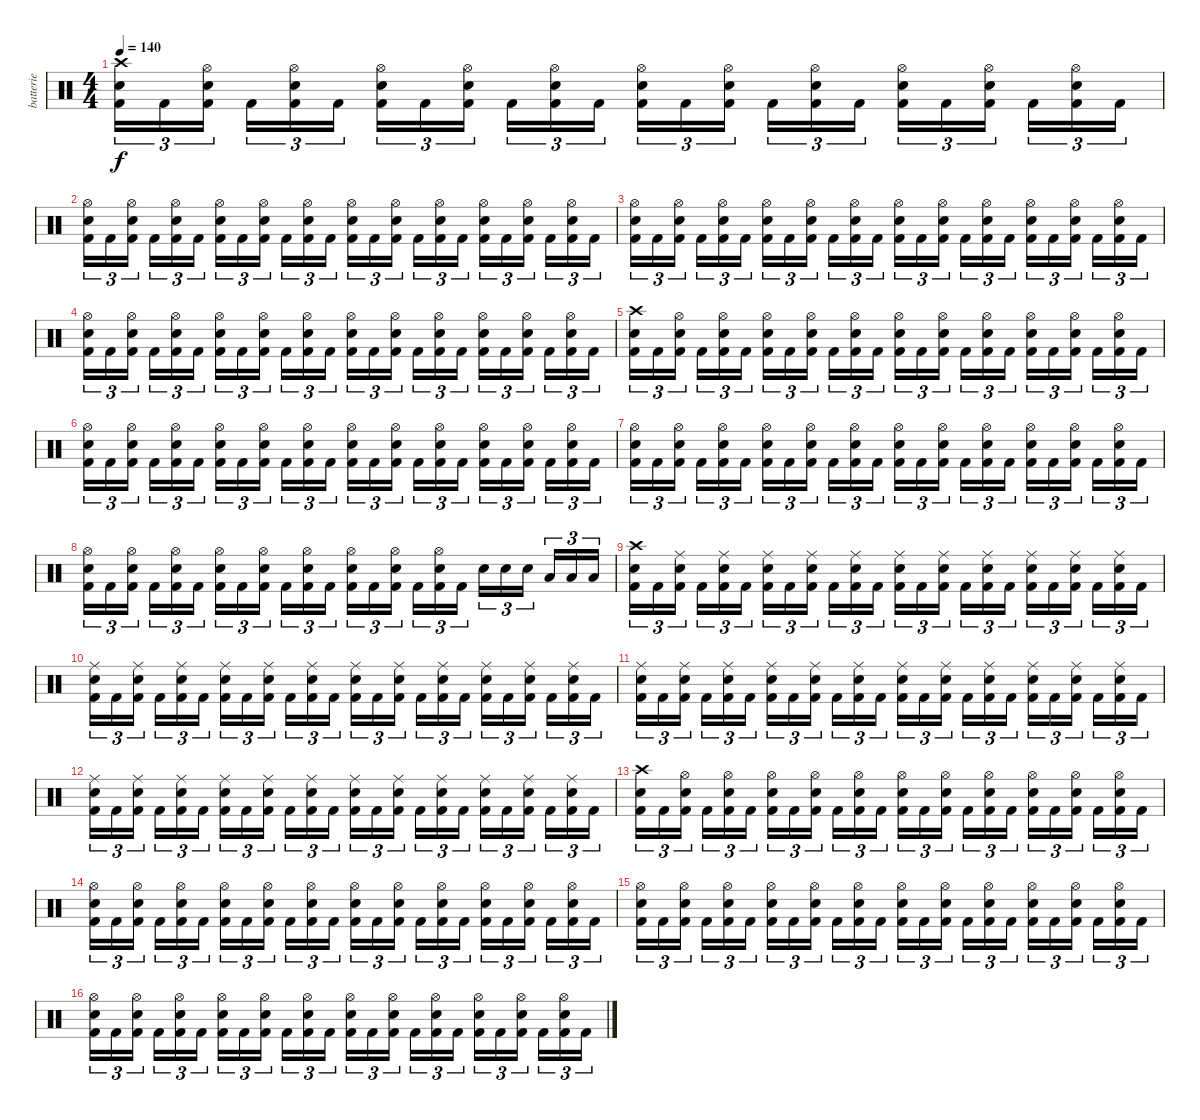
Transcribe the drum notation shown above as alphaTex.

\track ("batterie" "batterie") {instrument percussion}
\staff {score}
\articulation defaults
\ts (4 4)
\tempo 140
\clef neutral
\ks c
("Crash high (hit)" "Electric Snare (hit)" "Kick (hit) 2").16{tu (3 2) dy f} "Kick (hit) 2".16{tu (3 2)} ("Hi-Hat (open)" "Electric Snare (hit)" "Kick (hit) 2").16{tu (3 2)} "Kick (hit) 2".16{tu (3 2)} ("Hi-Hat (open)" "Electric Snare (hit)" "Kick (hit) 2").16{tu (3 2)} "Kick (hit) 2".16{tu (3 2)} ("Hi-Hat (open)" "Electric Snare (hit)" "Kick (hit) 2").16{tu (3 2)} "Kick (hit) 2".16{tu (3 2)} ("Hi-Hat (open)" "Electric Snare (hit)" "Kick (hit) 2").16{tu (3 2)} "Kick (hit) 2".16{tu (3 2)} ("Hi-Hat (open)" "Electric Snare (hit)" "Kick (hit) 2").16{tu (3 2)} "Kick (hit) 2".16{tu (3 2)} ("Hi-Hat (open)" "Electric Snare (hit)" "Kick (hit) 2").16{tu (3 2)} "Kick (hit) 2".16{tu (3 2)} ("Hi-Hat (open)" "Electric Snare (hit)" "Kick (hit) 2").16{tu (3 2)} "Kick (hit) 2".16{tu (3 2)} ("Hi-Hat (open)" "Electric Snare (hit)" "Kick (hit) 2").16{tu (3 2)} "Kick (hit) 2".16{tu (3 2)} ("Hi-Hat (open)" "Electric Snare (hit)" "Kick (hit) 2").16{tu (3 2)} "Kick (hit) 2".16{tu (3 2)} ("Hi-Hat (open)" "Electric Snare (hit)" "Kick (hit) 2").16{tu (3 2)} "Kick (hit) 2".16{tu (3 2)} ("Hi-Hat (open)" "Electric Snare (hit)" "Kick (hit) 2").16{tu (3 2)} "Kick (hit) 2".16{tu (3 2)} |
("Hi-Hat (open)" "Electric Snare (hit)" "Kick (hit) 2").16{tu (3 2)} "Kick (hit) 2".16{tu (3 2)} ("Hi-Hat (open)" "Electric Snare (hit)" "Kick (hit) 2").16{tu (3 2)} "Kick (hit) 2".16{tu (3 2)} ("Hi-Hat (open)" "Electric Snare (hit)" "Kick (hit) 2").16{tu (3 2)} "Kick (hit) 2".16{tu (3 2)} ("Hi-Hat (open)" "Electric Snare (hit)" "Kick (hit) 2").16{tu (3 2)} "Kick (hit) 2".16{tu (3 2)} ("Hi-Hat (open)" "Electric Snare (hit)" "Kick (hit) 2").16{tu (3 2)} "Kick (hit) 2".16{tu (3 2)} ("Hi-Hat (open)" "Electric Snare (hit)" "Kick (hit) 2").16{tu (3 2)} "Kick (hit) 2".16{tu (3 2)} ("Hi-Hat (open)" "Electric Snare (hit)" "Kick (hit) 2").16{tu (3 2)} "Kick (hit) 2".16{tu (3 2)} ("Hi-Hat (open)" "Electric Snare (hit)" "Kick (hit) 2").16{tu (3 2)} "Kick (hit) 2".16{tu (3 2)} ("Hi-Hat (open)" "Electric Snare (hit)" "Kick (hit) 2").16{tu (3 2)} "Kick (hit) 2".16{tu (3 2)} ("Hi-Hat (open)" "Electric Snare (hit)" "Kick (hit) 2").16{tu (3 2)} "Kick (hit) 2".16{tu (3 2)} ("Hi-Hat (open)" "Electric Snare (hit)" "Kick (hit) 2").16{tu (3 2)} "Kick (hit) 2".16{tu (3 2)} ("Hi-Hat (open)" "Electric Snare (hit)" "Kick (hit) 2").16{tu (3 2)} "Kick (hit) 2".16{tu (3 2)} |
("Hi-Hat (open)" "Electric Snare (hit)" "Kick (hit) 2").16{tu (3 2)} "Kick (hit) 2".16{tu (3 2)} ("Hi-Hat (open)" "Electric Snare (hit)" "Kick (hit) 2").16{tu (3 2)} "Kick (hit) 2".16{tu (3 2)} ("Hi-Hat (open)" "Electric Snare (hit)" "Kick (hit) 2").16{tu (3 2)} "Kick (hit) 2".16{tu (3 2)} ("Hi-Hat (open)" "Electric Snare (hit)" "Kick (hit) 2").16{tu (3 2)} "Kick (hit) 2".16{tu (3 2)} ("Hi-Hat (open)" "Electric Snare (hit)" "Kick (hit) 2").16{tu (3 2)} "Kick (hit) 2".16{tu (3 2)} ("Hi-Hat (open)" "Electric Snare (hit)" "Kick (hit) 2").16{tu (3 2)} "Kick (hit) 2".16{tu (3 2)} ("Hi-Hat (open)" "Electric Snare (hit)" "Kick (hit) 2").16{tu (3 2)} "Kick (hit) 2".16{tu (3 2)} ("Hi-Hat (open)" "Electric Snare (hit)" "Kick (hit) 2").16{tu (3 2)} "Kick (hit) 2".16{tu (3 2)} ("Hi-Hat (open)" "Electric Snare (hit)" "Kick (hit) 2").16{tu (3 2)} "Kick (hit) 2".16{tu (3 2)} ("Hi-Hat (open)" "Electric Snare (hit)" "Kick (hit) 2").16{tu (3 2)} "Kick (hit) 2".16{tu (3 2)} ("Hi-Hat (open)" "Electric Snare (hit)" "Kick (hit) 2").16{tu (3 2)} "Kick (hit) 2".16{tu (3 2)} ("Hi-Hat (open)" "Electric Snare (hit)" "Kick (hit) 2").16{tu (3 2)} "Kick (hit) 2".16{tu (3 2)} |
("Hi-Hat (open)" "Electric Snare (hit)" "Kick (hit) 2").16{tu (3 2)} "Kick (hit) 2".16{tu (3 2)} ("Hi-Hat (open)" "Electric Snare (hit)" "Kick (hit) 2").16{tu (3 2)} "Kick (hit) 2".16{tu (3 2)} ("Hi-Hat (open)" "Electric Snare (hit)" "Kick (hit) 2").16{tu (3 2)} "Kick (hit) 2".16{tu (3 2)} ("Hi-Hat (open)" "Electric Snare (hit)" "Kick (hit) 2").16{tu (3 2)} "Kick (hit) 2".16{tu (3 2)} ("Hi-Hat (open)" "Electric Snare (hit)" "Kick (hit) 2").16{tu (3 2)} "Kick (hit) 2".16{tu (3 2)} ("Hi-Hat (open)" "Electric Snare (hit)" "Kick (hit) 2").16{tu (3 2)} "Kick (hit) 2".16{tu (3 2)} ("Hi-Hat (open)" "Electric Snare (hit)" "Kick (hit) 2").16{tu (3 2)} "Kick (hit) 2".16{tu (3 2)} ("Hi-Hat (open)" "Electric Snare (hit)" "Kick (hit) 2").16{tu (3 2)} "Kick (hit) 2".16{tu (3 2)} ("Hi-Hat (open)" "Electric Snare (hit)" "Kick (hit) 2").16{tu (3 2)} "Kick (hit) 2".16{tu (3 2)} ("Hi-Hat (open)" "Electric Snare (hit)" "Kick (hit) 2").16{tu (3 2)} "Kick (hit) 2".16{tu (3 2)} ("Hi-Hat (open)" "Electric Snare (hit)" "Kick (hit) 2").16{tu (3 2)} "Kick (hit) 2".16{tu (3 2)} ("Hi-Hat (open)" "Electric Snare (hit)" "Kick (hit) 2").16{tu (3 2)} "Kick (hit) 2".16{tu (3 2)} |
("Crash high (hit)" "Electric Snare (hit)" "Kick (hit) 2").16{tu (3 2)} "Kick (hit) 2".16{tu (3 2)} ("Hi-Hat (open)" "Electric Snare (hit)" "Kick (hit) 2").16{tu (3 2)} "Kick (hit) 2".16{tu (3 2)} ("Hi-Hat (open)" "Electric Snare (hit)" "Kick (hit) 2").16{tu (3 2)} "Kick (hit) 2".16{tu (3 2)} ("Hi-Hat (open)" "Electric Snare (hit)" "Kick (hit) 2").16{tu (3 2)} "Kick (hit) 2".16{tu (3 2)} ("Hi-Hat (open)" "Electric Snare (hit)" "Kick (hit) 2").16{tu (3 2)} "Kick (hit) 2".16{tu (3 2)} ("Hi-Hat (open)" "Electric Snare (hit)" "Kick (hit) 2").16{tu (3 2)} "Kick (hit) 2".16{tu (3 2)} ("Hi-Hat (open)" "Electric Snare (hit)" "Kick (hit) 2").16{tu (3 2)} "Kick (hit) 2".16{tu (3 2)} ("Hi-Hat (open)" "Electric Snare (hit)" "Kick (hit) 2").16{tu (3 2)} "Kick (hit) 2".16{tu (3 2)} ("Hi-Hat (open)" "Electric Snare (hit)" "Kick (hit) 2").16{tu (3 2)} "Kick (hit) 2".16{tu (3 2)} ("Hi-Hat (open)" "Electric Snare (hit)" "Kick (hit) 2").16{tu (3 2)} "Kick (hit) 2".16{tu (3 2)} ("Hi-Hat (open)" "Electric Snare (hit)" "Kick (hit) 2").16{tu (3 2)} "Kick (hit) 2".16{tu (3 2)} ("Hi-Hat (open)" "Electric Snare (hit)" "Kick (hit) 2").16{tu (3 2)} "Kick (hit) 2".16{tu (3 2)} |
("Hi-Hat (open)" "Electric Snare (hit)" "Kick (hit) 2").16{tu (3 2)} "Kick (hit) 2".16{tu (3 2)} ("Hi-Hat (open)" "Electric Snare (hit)" "Kick (hit) 2").16{tu (3 2)} "Kick (hit) 2".16{tu (3 2)} ("Hi-Hat (open)" "Electric Snare (hit)" "Kick (hit) 2").16{tu (3 2)} "Kick (hit) 2".16{tu (3 2)} ("Hi-Hat (open)" "Electric Snare (hit)" "Kick (hit) 2").16{tu (3 2)} "Kick (hit) 2".16{tu (3 2)} ("Hi-Hat (open)" "Electric Snare (hit)" "Kick (hit) 2").16{tu (3 2)} "Kick (hit) 2".16{tu (3 2)} ("Hi-Hat (open)" "Electric Snare (hit)" "Kick (hit) 2").16{tu (3 2)} "Kick (hit) 2".16{tu (3 2)} ("Hi-Hat (open)" "Electric Snare (hit)" "Kick (hit) 2").16{tu (3 2)} "Kick (hit) 2".16{tu (3 2)} ("Hi-Hat (open)" "Electric Snare (hit)" "Kick (hit) 2").16{tu (3 2)} "Kick (hit) 2".16{tu (3 2)} ("Hi-Hat (open)" "Electric Snare (hit)" "Kick (hit) 2").16{tu (3 2)} "Kick (hit) 2".16{tu (3 2)} ("Hi-Hat (open)" "Electric Snare (hit)" "Kick (hit) 2").16{tu (3 2)} "Kick (hit) 2".16{tu (3 2)} ("Hi-Hat (open)" "Electric Snare (hit)" "Kick (hit) 2").16{tu (3 2)} "Kick (hit) 2".16{tu (3 2)} ("Hi-Hat (open)" "Electric Snare (hit)" "Kick (hit) 2").16{tu (3 2)} "Kick (hit) 2".16{tu (3 2)} |
("Hi-Hat (open)" "Electric Snare (hit)" "Kick (hit) 2").16{tu (3 2)} "Kick (hit) 2".16{tu (3 2)} ("Hi-Hat (open)" "Electric Snare (hit)" "Kick (hit) 2").16{tu (3 2)} "Kick (hit) 2".16{tu (3 2)} ("Hi-Hat (open)" "Electric Snare (hit)" "Kick (hit) 2").16{tu (3 2)} "Kick (hit) 2".16{tu (3 2)} ("Hi-Hat (open)" "Electric Snare (hit)" "Kick (hit) 2").16{tu (3 2)} "Kick (hit) 2".16{tu (3 2)} ("Hi-Hat (open)" "Electric Snare (hit)" "Kick (hit) 2").16{tu (3 2)} "Kick (hit) 2".16{tu (3 2)} ("Hi-Hat (open)" "Electric Snare (hit)" "Kick (hit) 2").16{tu (3 2)} "Kick (hit) 2".16{tu (3 2)} ("Hi-Hat (open)" "Electric Snare (hit)" "Kick (hit) 2").16{tu (3 2)} "Kick (hit) 2".16{tu (3 2)} ("Hi-Hat (open)" "Electric Snare (hit)" "Kick (hit) 2").16{tu (3 2)} "Kick (hit) 2".16{tu (3 2)} ("Hi-Hat (open)" "Electric Snare (hit)" "Kick (hit) 2").16{tu (3 2)} "Kick (hit) 2".16{tu (3 2)} ("Hi-Hat (open)" "Electric Snare (hit)" "Kick (hit) 2").16{tu (3 2)} "Kick (hit) 2".16{tu (3 2)} ("Hi-Hat (open)" "Electric Snare (hit)" "Kick (hit) 2").16{tu (3 2)} "Kick (hit) 2".16{tu (3 2)} ("Hi-Hat (open)" "Electric Snare (hit)" "Kick (hit) 2").16{tu (3 2)} "Kick (hit) 2".16{tu (3 2)} |
("Hi-Hat (open)" "Electric Snare (hit)" "Kick (hit) 2").16{tu (3 2)} "Kick (hit) 2".16{tu (3 2)} ("Hi-Hat (open)" "Electric Snare (hit)" "Kick (hit) 2").16{tu (3 2)} "Kick (hit) 2".16{tu (3 2)} ("Hi-Hat (open)" "Electric Snare (hit)" "Kick (hit) 2").16{tu (3 2)} "Kick (hit) 2".16{tu (3 2)} ("Hi-Hat (open)" "Electric Snare (hit)" "Kick (hit) 2").16{tu (3 2)} "Kick (hit) 2".16{tu (3 2)} ("Hi-Hat (open)" "Electric Snare (hit)" "Kick (hit) 2").16{tu (3 2)} "Kick (hit) 2".16{tu (3 2)} ("Hi-Hat (open)" "Electric Snare (hit)" "Kick (hit) 2").16{tu (3 2)} "Kick (hit) 2".16{tu (3 2)} ("Hi-Hat (open)" "Electric Snare (hit)" "Kick (hit) 2").16{tu (3 2)} "Kick (hit) 2".16{tu (3 2)} ("Hi-Hat (open)" "Electric Snare (hit)" "Kick (hit) 2").16{tu (3 2)} "Kick (hit) 2".16{tu (3 2)} ("Hi-Hat (open)" "Electric Snare (hit)" "Kick (hit) 2").16{tu (3 2)} "Kick (hit) 2".16{tu (3 2)} "Electric Snare (hit)".16{tu (3 2)} "Electric Snare (hit)".16{tu (3 2)} "Electric Snare (hit)".16{tu (3 2)} "Low Tom (hit)".16{tu (3 2)} "Low Tom (hit)".16{tu (3 2)} "Low Tom (hit)".16{tu (3 2)} |
("Crash high (hit)" "Electric Snare (hit)" "Kick (hit) 2").16{tu (3 2)} "Kick (hit) 2".16{tu (3 2)} ("Ride (middle)" "Electric Snare (hit)" "Kick (hit) 2").16{tu (3 2)} "Kick (hit) 2".16{tu (3 2)} ("Ride (middle)" "Electric Snare (hit)" "Kick (hit) 2").16{tu (3 2)} "Kick (hit) 2".16{tu (3 2)} ("Ride (middle)" "Electric Snare (hit)" "Kick (hit) 2").16{tu (3 2)} "Kick (hit) 2".16{tu (3 2)} ("Ride (middle)" "Electric Snare (hit)" "Kick (hit) 2").16{tu (3 2)} "Kick (hit) 2".16{tu (3 2)} ("Ride (middle)" "Electric Snare (hit)" "Kick (hit) 2").16{tu (3 2)} "Kick (hit) 2".16{tu (3 2)} ("Ride (middle)" "Electric Snare (hit)" "Kick (hit) 2").16{tu (3 2)} "Kick (hit) 2".16{tu (3 2)} ("Ride (middle)" "Electric Snare (hit)" "Kick (hit) 2").16{tu (3 2)} "Kick (hit) 2".16{tu (3 2)} ("Ride (middle)" "Electric Snare (hit)" "Kick (hit) 2").16{tu (3 2)} "Kick (hit) 2".16{tu (3 2)} ("Ride (middle)" "Electric Snare (hit)" "Kick (hit) 2").16{tu (3 2)} "Kick (hit) 2".16{tu (3 2)} ("Ride (middle)" "Electric Snare (hit)" "Kick (hit) 2").16{tu (3 2)} "Kick (hit) 2".16{tu (3 2)} ("Ride (middle)" "Electric Snare (hit)" "Kick (hit) 2").16{tu (3 2)} "Kick (hit) 2".16{tu (3 2)} |
("Ride (middle)" "Electric Snare (hit)" "Kick (hit) 2").16{tu (3 2)} "Kick (hit) 2".16{tu (3 2)} ("Ride (middle)" "Electric Snare (hit)" "Kick (hit) 2").16{tu (3 2)} "Kick (hit) 2".16{tu (3 2)} ("Ride (middle)" "Electric Snare (hit)" "Kick (hit) 2").16{tu (3 2)} "Kick (hit) 2".16{tu (3 2)} ("Ride (middle)" "Electric Snare (hit)" "Kick (hit) 2").16{tu (3 2)} "Kick (hit) 2".16{tu (3 2)} ("Ride (middle)" "Electric Snare (hit)" "Kick (hit) 2").16{tu (3 2)} "Kick (hit) 2".16{tu (3 2)} ("Ride (middle)" "Electric Snare (hit)" "Kick (hit) 2").16{tu (3 2)} "Kick (hit) 2".16{tu (3 2)} ("Ride (middle)" "Electric Snare (hit)" "Kick (hit) 2").16{tu (3 2)} "Kick (hit) 2".16{tu (3 2)} ("Ride (middle)" "Electric Snare (hit)" "Kick (hit) 2").16{tu (3 2)} "Kick (hit) 2".16{tu (3 2)} ("Ride (middle)" "Electric Snare (hit)" "Kick (hit) 2").16{tu (3 2)} "Kick (hit) 2".16{tu (3 2)} ("Ride (middle)" "Electric Snare (hit)" "Kick (hit) 2").16{tu (3 2)} "Kick (hit) 2".16{tu (3 2)} ("Ride (middle)" "Electric Snare (hit)" "Kick (hit) 2").16{tu (3 2)} "Kick (hit) 2".16{tu (3 2)} ("Ride (middle)" "Electric Snare (hit)" "Kick (hit) 2").16{tu (3 2)} "Kick (hit) 2".16{tu (3 2)} |
("Ride (middle)" "Electric Snare (hit)" "Kick (hit) 2").16{tu (3 2)} "Kick (hit) 2".16{tu (3 2)} ("Ride (middle)" "Electric Snare (hit)" "Kick (hit) 2").16{tu (3 2)} "Kick (hit) 2".16{tu (3 2)} ("Ride (middle)" "Electric Snare (hit)" "Kick (hit) 2").16{tu (3 2)} "Kick (hit) 2".16{tu (3 2)} ("Ride (middle)" "Electric Snare (hit)" "Kick (hit) 2").16{tu (3 2)} "Kick (hit) 2".16{tu (3 2)} ("Ride (middle)" "Electric Snare (hit)" "Kick (hit) 2").16{tu (3 2)} "Kick (hit) 2".16{tu (3 2)} ("Ride (middle)" "Electric Snare (hit)" "Kick (hit) 2").16{tu (3 2)} "Kick (hit) 2".16{tu (3 2)} ("Ride (middle)" "Electric Snare (hit)" "Kick (hit) 2").16{tu (3 2)} "Kick (hit) 2".16{tu (3 2)} ("Ride (middle)" "Electric Snare (hit)" "Kick (hit) 2").16{tu (3 2)} "Kick (hit) 2".16{tu (3 2)} ("Ride (middle)" "Electric Snare (hit)" "Kick (hit) 2").16{tu (3 2)} "Kick (hit) 2".16{tu (3 2)} ("Ride (middle)" "Electric Snare (hit)" "Kick (hit) 2").16{tu (3 2)} "Kick (hit) 2".16{tu (3 2)} ("Ride (middle)" "Electric Snare (hit)" "Kick (hit) 2").16{tu (3 2)} "Kick (hit) 2".16{tu (3 2)} ("Ride (middle)" "Electric Snare (hit)" "Kick (hit) 2").16{tu (3 2)} "Kick (hit) 2".16{tu (3 2)} |
("Ride (middle)" "Electric Snare (hit)" "Kick (hit) 2").16{tu (3 2)} "Kick (hit) 2".16{tu (3 2)} ("Ride (middle)" "Electric Snare (hit)" "Kick (hit) 2").16{tu (3 2)} "Kick (hit) 2".16{tu (3 2)} ("Ride (middle)" "Electric Snare (hit)" "Kick (hit) 2").16{tu (3 2)} "Kick (hit) 2".16{tu (3 2)} ("Ride (middle)" "Electric Snare (hit)" "Kick (hit) 2").16{tu (3 2)} "Kick (hit) 2".16{tu (3 2)} ("Ride (middle)" "Electric Snare (hit)" "Kick (hit) 2").16{tu (3 2)} "Kick (hit) 2".16{tu (3 2)} ("Ride (middle)" "Electric Snare (hit)" "Kick (hit) 2").16{tu (3 2)} "Kick (hit) 2".16{tu (3 2)} ("Ride (middle)" "Electric Snare (hit)" "Kick (hit) 2").16{tu (3 2)} "Kick (hit) 2".16{tu (3 2)} ("Ride (middle)" "Electric Snare (hit)" "Kick (hit) 2").16{tu (3 2)} "Kick (hit) 2".16{tu (3 2)} ("Ride (middle)" "Electric Snare (hit)" "Kick (hit) 2").16{tu (3 2)} "Kick (hit) 2".16{tu (3 2)} ("Ride (middle)" "Electric Snare (hit)" "Kick (hit) 2").16{tu (3 2)} "Kick (hit) 2".16{tu (3 2)} ("Ride (middle)" "Electric Snare (hit)" "Kick (hit) 2").16{tu (3 2)} "Kick (hit) 2".16{tu (3 2)} ("Ride (middle)" "Electric Snare (hit)" "Kick (hit) 2").16{tu (3 2)} "Kick (hit) 2".16{tu (3 2)} |
("Crash high (hit)" "Electric Snare (hit)" "Kick (hit) 2").16{tu (3 2)} "Kick (hit) 2".16{tu (3 2)} ("Hi-Hat (open)" "Electric Snare (hit)" "Kick (hit) 2").16{tu (3 2)} "Kick (hit) 2".16{tu (3 2)} ("Hi-Hat (open)" "Electric Snare (hit)" "Kick (hit) 2").16{tu (3 2)} "Kick (hit) 2".16{tu (3 2)} ("Hi-Hat (open)" "Electric Snare (hit)" "Kick (hit) 2").16{tu (3 2)} "Kick (hit) 2".16{tu (3 2)} ("Hi-Hat (open)" "Electric Snare (hit)" "Kick (hit) 2").16{tu (3 2)} "Kick (hit) 2".16{tu (3 2)} ("Hi-Hat (open)" "Electric Snare (hit)" "Kick (hit) 2").16{tu (3 2)} "Kick (hit) 2".16{tu (3 2)} ("Hi-Hat (open)" "Electric Snare (hit)" "Kick (hit) 2").16{tu (3 2)} "Kick (hit) 2".16{tu (3 2)} ("Hi-Hat (open)" "Electric Snare (hit)" "Kick (hit) 2").16{tu (3 2)} "Kick (hit) 2".16{tu (3 2)} ("Hi-Hat (open)" "Electric Snare (hit)" "Kick (hit) 2").16{tu (3 2)} "Kick (hit) 2".16{tu (3 2)} ("Hi-Hat (open)" "Electric Snare (hit)" "Kick (hit) 2").16{tu (3 2)} "Kick (hit) 2".16{tu (3 2)} ("Hi-Hat (open)" "Electric Snare (hit)" "Kick (hit) 2").16{tu (3 2)} "Kick (hit) 2".16{tu (3 2)} ("Hi-Hat (open)" "Electric Snare (hit)" "Kick (hit) 2").16{tu (3 2)} "Kick (hit) 2".16{tu (3 2)} |
("Hi-Hat (open)" "Electric Snare (hit)" "Kick (hit) 2").16{tu (3 2)} "Kick (hit) 2".16{tu (3 2)} ("Hi-Hat (open)" "Electric Snare (hit)" "Kick (hit) 2").16{tu (3 2)} "Kick (hit) 2".16{tu (3 2)} ("Hi-Hat (open)" "Electric Snare (hit)" "Kick (hit) 2").16{tu (3 2)} "Kick (hit) 2".16{tu (3 2)} ("Hi-Hat (open)" "Electric Snare (hit)" "Kick (hit) 2").16{tu (3 2)} "Kick (hit) 2".16{tu (3 2)} ("Hi-Hat (open)" "Electric Snare (hit)" "Kick (hit) 2").16{tu (3 2)} "Kick (hit) 2".16{tu (3 2)} ("Hi-Hat (open)" "Electric Snare (hit)" "Kick (hit) 2").16{tu (3 2)} "Kick (hit) 2".16{tu (3 2)} ("Hi-Hat (open)" "Electric Snare (hit)" "Kick (hit) 2").16{tu (3 2)} "Kick (hit) 2".16{tu (3 2)} ("Hi-Hat (open)" "Electric Snare (hit)" "Kick (hit) 2").16{tu (3 2)} "Kick (hit) 2".16{tu (3 2)} ("Hi-Hat (open)" "Electric Snare (hit)" "Kick (hit) 2").16{tu (3 2)} "Kick (hit) 2".16{tu (3 2)} ("Hi-Hat (open)" "Electric Snare (hit)" "Kick (hit) 2").16{tu (3 2)} "Kick (hit) 2".16{tu (3 2)} ("Hi-Hat (open)" "Electric Snare (hit)" "Kick (hit) 2").16{tu (3 2)} "Kick (hit) 2".16{tu (3 2)} ("Hi-Hat (open)" "Electric Snare (hit)" "Kick (hit) 2").16{tu (3 2)} "Kick (hit) 2".16{tu (3 2)} |
("Hi-Hat (open)" "Electric Snare (hit)" "Kick (hit) 2").16{tu (3 2)} "Kick (hit) 2".16{tu (3 2)} ("Hi-Hat (open)" "Electric Snare (hit)" "Kick (hit) 2").16{tu (3 2)} "Kick (hit) 2".16{tu (3 2)} ("Hi-Hat (open)" "Electric Snare (hit)" "Kick (hit) 2").16{tu (3 2)} "Kick (hit) 2".16{tu (3 2)} ("Hi-Hat (open)" "Electric Snare (hit)" "Kick (hit) 2").16{tu (3 2)} "Kick (hit) 2".16{tu (3 2)} ("Hi-Hat (open)" "Electric Snare (hit)" "Kick (hit) 2").16{tu (3 2)} "Kick (hit) 2".16{tu (3 2)} ("Hi-Hat (open)" "Electric Snare (hit)" "Kick (hit) 2").16{tu (3 2)} "Kick (hit) 2".16{tu (3 2)} ("Hi-Hat (open)" "Electric Snare (hit)" "Kick (hit) 2").16{tu (3 2)} "Kick (hit) 2".16{tu (3 2)} ("Hi-Hat (open)" "Electric Snare (hit)" "Kick (hit) 2").16{tu (3 2)} "Kick (hit) 2".16{tu (3 2)} ("Hi-Hat (open)" "Electric Snare (hit)" "Kick (hit) 2").16{tu (3 2)} "Kick (hit) 2".16{tu (3 2)} ("Hi-Hat (open)" "Electric Snare (hit)" "Kick (hit) 2").16{tu (3 2)} "Kick (hit) 2".16{tu (3 2)} ("Hi-Hat (open)" "Electric Snare (hit)" "Kick (hit) 2").16{tu (3 2)} "Kick (hit) 2".16{tu (3 2)} ("Hi-Hat (open)" "Electric Snare (hit)" "Kick (hit) 2").16{tu (3 2)} "Kick (hit) 2".16{tu (3 2)} |
("Hi-Hat (open)" "Electric Snare (hit)" "Kick (hit) 2").16{tu (3 2)} "Kick (hit) 2".16{tu (3 2)} ("Hi-Hat (open)" "Electric Snare (hit)" "Kick (hit) 2").16{tu (3 2)} "Kick (hit) 2".16{tu (3 2)} ("Hi-Hat (open)" "Electric Snare (hit)" "Kick (hit) 2").16{tu (3 2)} "Kick (hit) 2".16{tu (3 2)} ("Hi-Hat (open)" "Electric Snare (hit)" "Kick (hit) 2").16{tu (3 2)} "Kick (hit) 2".16{tu (3 2)} ("Hi-Hat (open)" "Electric Snare (hit)" "Kick (hit) 2").16{tu (3 2)} "Kick (hit) 2".16{tu (3 2)} ("Hi-Hat (open)" "Electric Snare (hit)" "Kick (hit) 2").16{tu (3 2)} "Kick (hit) 2".16{tu (3 2)} ("Hi-Hat (open)" "Electric Snare (hit)" "Kick (hit) 2").16{tu (3 2)} "Kick (hit) 2".16{tu (3 2)} ("Hi-Hat (open)" "Electric Snare (hit)" "Kick (hit) 2").16{tu (3 2)} "Kick (hit) 2".16{tu (3 2)} ("Hi-Hat (open)" "Electric Snare (hit)" "Kick (hit) 2").16{tu (3 2)} "Kick (hit) 2".16{tu (3 2)} ("Hi-Hat (open)" "Electric Snare (hit)" "Kick (hit) 2").16{tu (3 2)} "Kick (hit) 2".16{tu (3 2)} ("Hi-Hat (open)" "Electric Snare (hit)" "Kick (hit) 2").16{tu (3 2)} "Kick (hit) 2".16{tu (3 2)} ("Hi-Hat (open)" "Electric Snare (hit)" "Kick (hit) 2").16{tu (3 2)} "Kick (hit) 2".16{tu (3 2)}
